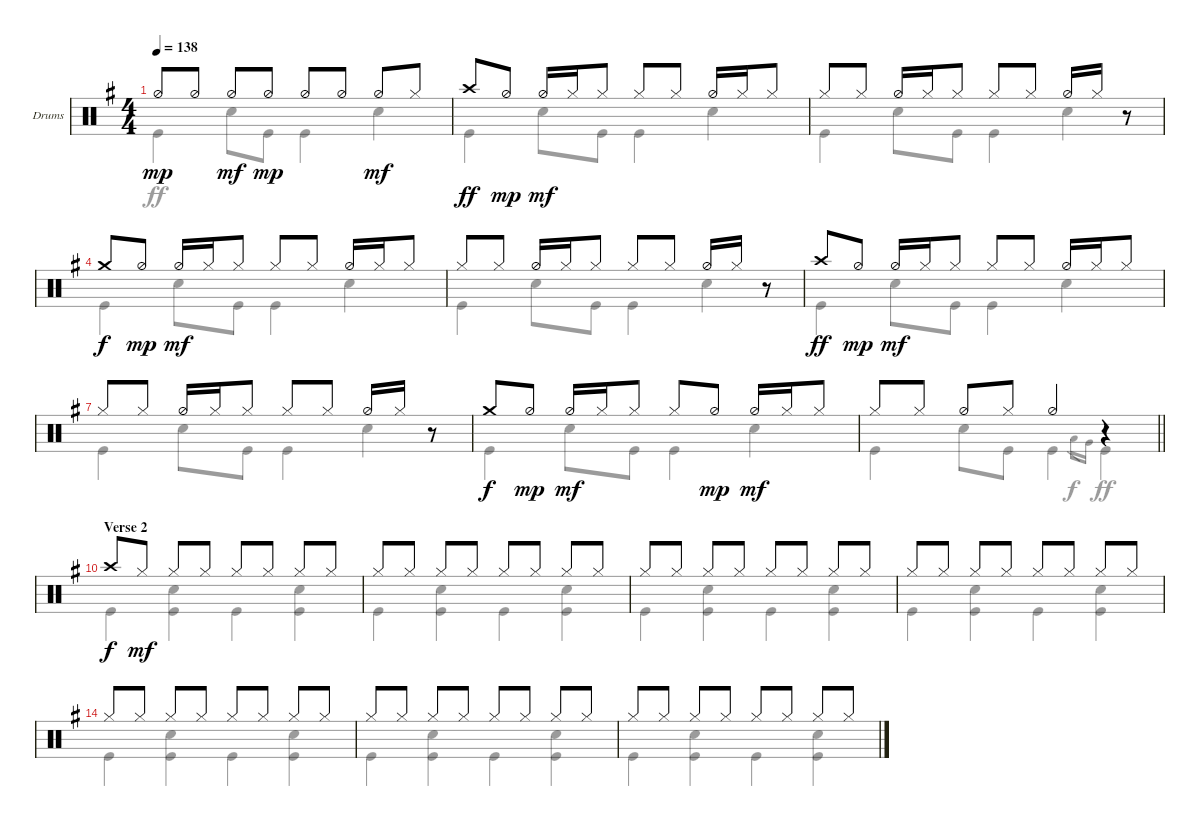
\defaultSystemsLayout 4
\bracketExtendMode groupsimilarinstruments
\useSystemSignSeparator
\multiBarRest
\multiTrackTrackNamePolicy allsystems
\firstSystemTrackNameMode fullname
\firstSystemTrackNameOrientation horizontal
\otherSystemsTrackNameOrientation horizontal
\defaultBarNumberDisplay FirstOfSystem
\track ("Drums" "Dr.") {multiBarRest instrument percussion}
\staff {score}
\articulation defaults
\voice
\ts (4 4)
\tempo 138
\clef neutral
\ks g "Hi-Hat (half)".8{dy mp} "Hi-Hat (half)".8 "Hi-Hat (half)".8{dy mf} "Hi-Hat (half)".8{dy mp} "Hi-Hat (half)".8 "Hi-Hat (half)".8 "Hi-Hat (half)".8{dy mf} "Hi-Hat (closed)".8
|
"Crash high (hit)".8{dy ff} "Hi-Hat (half)".8{dy mp} "Hi-Hat (half)".16{dy mf} "Hi-Hat (closed)".16 "Hi-Hat (closed)".8 "Hi-Hat (closed)".8 "Hi-Hat (closed)".8 "Hi-Hat (half)".16 "Hi-Hat (closed)".16 "Hi-Hat (closed)".8 |
"Hi-Hat (closed)".8 "Hi-Hat (closed)".8 "Hi-Hat (half)".16 "Hi-Hat (closed)".16 "Hi-Hat (closed)".8 "Hi-Hat (closed)".8 "Hi-Hat (closed)".8 "Hi-Hat (half)".16 "Hi-Hat (closed)".16 r.8 |
"Crash medium (hit)".8{dy f} "Hi-Hat (half)".8{dy mp} "Hi-Hat (half)".16{dy mf} "Hi-Hat (closed)".16 "Hi-Hat (closed)".8 "Hi-Hat (closed)".8 "Hi-Hat (closed)".8 "Hi-Hat (half)".16 "Hi-Hat (closed)".16 "Hi-Hat (closed)".8 |
"Hi-Hat (closed)".8 "Hi-Hat (closed)".8 "Hi-Hat (half)".16 "Hi-Hat (closed)".16 "Hi-Hat (closed)".8 "Hi-Hat (closed)".8 "Hi-Hat (closed)".8 "Hi-Hat (half)".16 "Hi-Hat (closed)".16 r.8 |
"Crash high (hit)".8{dy ff} "Hi-Hat (half)".8{dy mp} "Hi-Hat (half)".16{dy mf} "Hi-Hat (closed)".16 "Hi-Hat (closed)".8 "Hi-Hat (closed)".8 "Hi-Hat (closed)".8 "Hi-Hat (half)".16 "Hi-Hat (closed)".16 "Hi-Hat (closed)".8 |
"Hi-Hat (closed)".8 "Hi-Hat (closed)".8 "Hi-Hat (half)".16 "Hi-Hat (closed)".16 "Hi-Hat (closed)".8 "Hi-Hat (closed)".8 "Hi-Hat (closed)".8 "Hi-Hat (half)".16 "Hi-Hat (closed)".16 r.8 |
"Crash medium (hit)".8{dy f} "Hi-Hat (half)".8{dy mp} "Hi-Hat (half)".16{dy mf} "Hi-Hat (closed)".16 "Hi-Hat (closed)".8 "Hi-Hat (closed)".8 "Hi-Hat (half)".8{dy mp} "Hi-Hat (half)".16{dy mf} "Hi-Hat (closed)".16 "Hi-Hat (closed)".8 |
\barLineRight lightlight "Hi-Hat (closed)".8 "Hi-Hat (closed)".8 "Hi-Hat (half)".8 "Hi-Hat (closed)".8 "Hi-Hat (half)".4
r.4 |
\section ("" "Verse 2")
"Crash high (hit)".8{dy f} "Hi-Hat (closed)".8{dy mf} "Hi-Hat (closed)".8 "Hi-Hat (closed)".8 "Hi-Hat (closed)".8 "Hi-Hat (closed)".8 "Hi-Hat (closed)".8 "Hi-Hat (closed)".8 |
"Hi-Hat (closed)".8 "Hi-Hat (closed)".8 "Hi-Hat (closed)".8 "Hi-Hat (closed)".8 "Hi-Hat (closed)".8 "Hi-Hat (closed)".8 "Hi-Hat (closed)".8 "Hi-Hat (closed)".8 |
"Hi-Hat (closed)".8 "Hi-Hat (closed)".8 "Hi-Hat (closed)".8 "Hi-Hat (closed)".8 "Hi-Hat (closed)".8 "Hi-Hat (closed)".8 "Hi-Hat (closed)".8 "Hi-Hat (closed)".8 |
"Hi-Hat (closed)".8 "Hi-Hat (closed)".8 "Hi-Hat (closed)".8 "Hi-Hat (closed)".8 "Hi-Hat (closed)".8 "Hi-Hat (closed)".8 "Hi-Hat (closed)".8 "Hi-Hat (closed)".8 |
"Hi-Hat (closed)".8 "Hi-Hat (closed)".8 "Hi-Hat (closed)".8 "Hi-Hat (closed)".8 "Hi-Hat (closed)".8 "Hi-Hat (closed)".8 "Hi-Hat (closed)".8 "Hi-Hat (closed)".8 |
"Hi-Hat (closed)".8 "Hi-Hat (closed)".8 "Hi-Hat (closed)".8 "Hi-Hat (closed)".8 "Hi-Hat (closed)".8 "Hi-Hat (closed)".8 "Hi-Hat (closed)".8 "Hi-Hat (closed)".8 |
"Hi-Hat (closed)".8 "Hi-Hat (closed)".8 "Hi-Hat (closed)".8 "Hi-Hat (closed)".8 "Hi-Hat (closed)".8 "Hi-Hat (closed)".8 "Hi-Hat (closed)".8 "Hi-Hat (closed)".8
\voice
\clef neutral
\ottava regular
\simile none
\ks g "Kick (hit)".4{dy ff} "Snare (hit) 2".8 "Kick (hit)".8 "Kick (hit)".4 "Snare (hit) 2".4
|
"Kick (hit)".4 "Snare (hit) 2".8 "Kick (hit)".8 "Kick (hit)".4 "Snare (hit) 2".4 |
"Kick (hit)".4 "Snare (hit) 2".8 "Kick (hit)".8 "Kick (hit)".4 "Snare (hit) 2".4 |
"Kick (hit)".4 "Snare (hit) 2".8 "Kick (hit)".8 "Kick (hit)".4 "Snare (hit) 2".4 |
"Kick (hit)".4 "Snare (hit) 2".8 "Kick (hit)".8 "Kick (hit)".4 "Snare (hit) 2".4 |
"Kick (hit)".4 "Snare (hit) 2".8 "Kick (hit)".8 "Kick (hit)".4 "Snare (hit) 2".4 |
"Kick (hit)".4 "Snare (hit) 2".8 "Kick (hit)".8 "Kick (hit)".4 "Snare (hit) 2".4 |
"Kick (hit)".4 "Snare (hit) 2".8 "Kick (hit)".8 "Kick (hit)".4 "Snare (hit) 2".4 |
\barLineRight lightlight "Kick (hit)".4 "Snare (hit) 2".8 "Kick (hit)".8 "Kick (hit)".4 "Low Tom (hit)".16{gr dy f} "Very Low Tom (hit)".16{gr} "Kick (hit)".4{dy ff}
|
"Kick (hit)".4{dy f} ("Kick (hit)" "Snare (hit) 2").4 "Kick (hit)".4 ("Kick (hit)" "Snare (hit) 2").4 |
"Kick (hit)".4 ("Kick (hit)" "Snare (hit) 2").4 "Kick (hit)".4 ("Kick (hit)" "Snare (hit) 2").4 |
"Kick (hit)".4 ("Kick (hit)" "Snare (hit) 2").4 "Kick (hit)".4 ("Kick (hit)" "Snare (hit) 2").4 |
"Kick (hit)".4 ("Kick (hit)" "Snare (hit) 2").4 "Kick (hit)".4 ("Kick (hit)" "Snare (hit) 2").4 |
"Kick (hit)".4 ("Kick (hit)" "Snare (hit) 2").4 "Kick (hit)".4 ("Kick (hit)" "Snare (hit) 2").4 |
"Kick (hit)".4 ("Kick (hit)" "Snare (hit) 2").4 "Kick (hit)".4 ("Kick (hit)" "Snare (hit) 2").4 |
"Kick (hit)".4 ("Kick (hit)" "Snare (hit) 2").4 "Kick (hit)".4 ("Kick (hit)" "Snare (hit) 2").4
